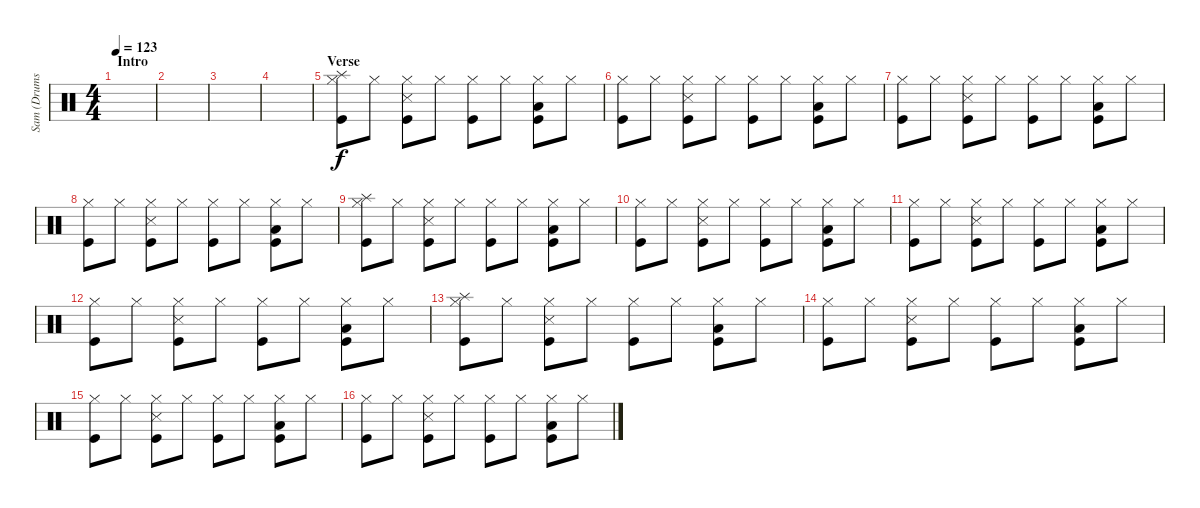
\track ("Sam (Drums)" "Sam (Drums") {instrument percussion}
\staff {score}
\articulation defaults
\ts (4 4)
\section ("" "Intro")
\tempo 123
\clef neutral
\ks c
|
|
|
|
\section ("" "Verse")
("Splash (hit)" "Hi-Hat (closed)" "Kick (hit)").8 "Hi-Hat (closed)".8 ("Hi-Hat (closed)" "Snare (side stick) 3" "Kick (hit)").8 "Hi-Hat (closed)".8 ("Hi-Hat (closed)" "Kick (hit)").8 "Hi-Hat (closed)".8 ("Hi-Hat (closed)" "Low Tom (hit)" "Kick (hit)").8 "Hi-Hat (closed)".8 |
("Hi-Hat (closed)" "Kick (hit)").8 "Hi-Hat (closed)".8 ("Hi-Hat (closed)" "Snare (side stick) 3" "Kick (hit)").8 "Hi-Hat (closed)".8 ("Hi-Hat (closed)" "Kick (hit)").8 "Hi-Hat (closed)".8 ("Hi-Hat (closed)" "Low Tom (hit)" "Kick (hit)").8 "Hi-Hat (closed)".8 |
("Hi-Hat (closed)" "Kick (hit)").8 "Hi-Hat (closed)".8 ("Hi-Hat (closed)" "Snare (side stick) 3" "Kick (hit)").8 "Hi-Hat (closed)".8 ("Hi-Hat (closed)" "Kick (hit)").8 "Hi-Hat (closed)".8 ("Hi-Hat (closed)" "Low Tom (hit)" "Kick (hit)").8 "Hi-Hat (closed)".8 |
("Hi-Hat (closed)" "Kick (hit)").8 "Hi-Hat (closed)".8 ("Hi-Hat (closed)" "Snare (side stick) 3" "Kick (hit)").8 "Hi-Hat (closed)".8 ("Hi-Hat (closed)" "Kick (hit)").8 "Hi-Hat (closed)".8 ("Hi-Hat (closed)" "Low Tom (hit)" "Kick (hit)").8 "Hi-Hat (closed)".8 |
("Splash (hit)" "Hi-Hat (closed)" "Kick (hit)").8 "Hi-Hat (closed)".8 ("Hi-Hat (closed)" "Snare (side stick) 3" "Kick (hit)").8 "Hi-Hat (closed)".8 ("Hi-Hat (closed)" "Kick (hit)").8 "Hi-Hat (closed)".8 ("Hi-Hat (closed)" "Low Tom (hit)" "Kick (hit)").8 "Hi-Hat (closed)".8 |
("Hi-Hat (closed)" "Kick (hit)").8 "Hi-Hat (closed)".8 ("Hi-Hat (closed)" "Snare (side stick) 3" "Kick (hit)").8 "Hi-Hat (closed)".8 ("Hi-Hat (closed)" "Kick (hit)").8 "Hi-Hat (closed)".8 ("Hi-Hat (closed)" "Low Tom (hit)" "Kick (hit)").8 "Hi-Hat (closed)".8 |
("Hi-Hat (closed)" "Kick (hit)").8 "Hi-Hat (closed)".8 ("Hi-Hat (closed)" "Snare (side stick) 3" "Kick (hit)").8 "Hi-Hat (closed)".8 ("Hi-Hat (closed)" "Kick (hit)").8 "Hi-Hat (closed)".8 ("Hi-Hat (closed)" "Low Tom (hit)" "Kick (hit)").8 "Hi-Hat (closed)".8 |
("Hi-Hat (closed)" "Kick (hit)").8 "Hi-Hat (closed)".8 ("Hi-Hat (closed)" "Snare (side stick) 3" "Kick (hit)").8 "Hi-Hat (closed)".8 ("Hi-Hat (closed)" "Kick (hit)").8 "Hi-Hat (closed)".8 ("Hi-Hat (closed)" "Low Tom (hit)" "Kick (hit)").8 "Hi-Hat (closed)".8 |
("Splash (hit)" "Hi-Hat (closed)" "Kick (hit)").8 "Hi-Hat (closed)".8 ("Hi-Hat (closed)" "Snare (side stick) 3" "Kick (hit)").8 "Hi-Hat (closed)".8 ("Hi-Hat (closed)" "Kick (hit)").8 "Hi-Hat (closed)".8 ("Hi-Hat (closed)" "Low Tom (hit)" "Kick (hit)").8 "Hi-Hat (closed)".8 |
("Hi-Hat (closed)" "Kick (hit)").8 "Hi-Hat (closed)".8 ("Hi-Hat (closed)" "Snare (side stick) 3" "Kick (hit)").8 "Hi-Hat (closed)".8 ("Hi-Hat (closed)" "Kick (hit)").8 "Hi-Hat (closed)".8 ("Hi-Hat (closed)" "Low Tom (hit)" "Kick (hit)").8 "Hi-Hat (closed)".8 |
("Hi-Hat (closed)" "Kick (hit)").8 "Hi-Hat (closed)".8 ("Hi-Hat (closed)" "Snare (side stick) 3" "Kick (hit)").8 "Hi-Hat (closed)".8 ("Hi-Hat (closed)" "Kick (hit)").8 "Hi-Hat (closed)".8 ("Hi-Hat (closed)" "Low Tom (hit)" "Kick (hit)").8 "Hi-Hat (closed)".8 |
("Hi-Hat (closed)" "Kick (hit)").8 "Hi-Hat (closed)".8 ("Hi-Hat (closed)" "Snare (side stick) 3" "Kick (hit)").8 "Hi-Hat (closed)".8 ("Hi-Hat (closed)" "Kick (hit)").8 "Hi-Hat (closed)".8 ("Hi-Hat (closed)" "Low Tom (hit)" "Kick (hit)").8 "Hi-Hat (closed)".8
